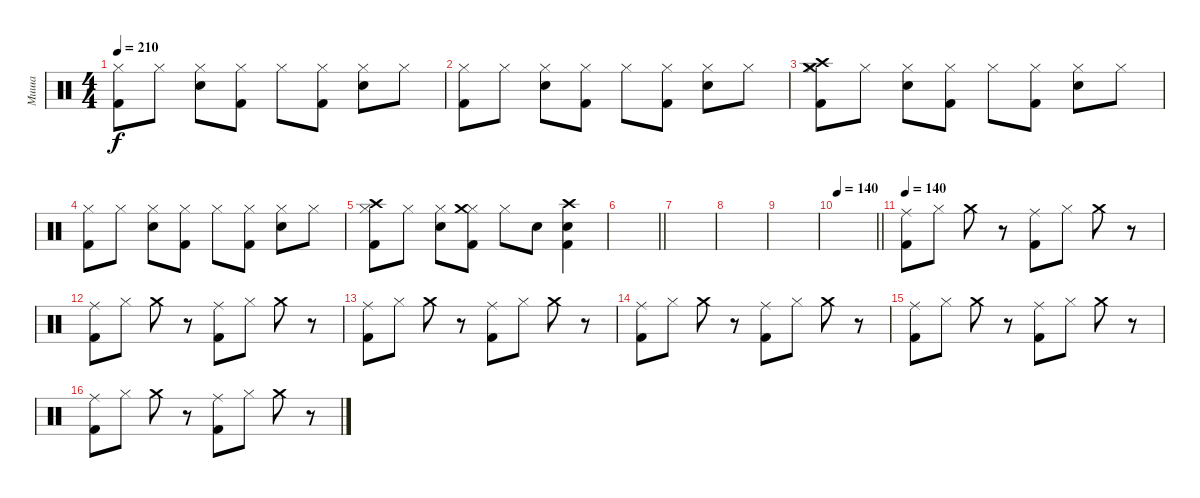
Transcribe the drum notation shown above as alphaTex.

\track ("Миша" "Миша") {instrument percussion}
\staff {score}
\articulation defaults
\ts (4 4)
\tempo 210
\clef neutral
\ks c
("Hi-Hat (closed)" "Kick (hit) 2").8{dy f} "Hi-Hat (closed)".8 ("Hi-Hat (closed)" "Snare (hit) 2").8 ("Hi-Hat (closed)" "Kick (hit) 2").8 "Hi-Hat (closed)".8 ("Hi-Hat (closed)" "Kick (hit) 2").8 ("Hi-Hat (closed)" "Snare (hit) 2").8 "Hi-Hat (closed)".8 |
("Hi-Hat (closed)" "Kick (hit) 2").8 "Hi-Hat (closed)".8 ("Hi-Hat (closed)" "Snare (hit) 2").8 ("Hi-Hat (closed)" "Kick (hit) 2").8 "Hi-Hat (closed)".8 ("Hi-Hat (closed)" "Kick (hit) 2").8 ("Hi-Hat (closed)" "Snare (hit) 2").8 "Hi-Hat (closed)".8 |
("Hi-Hat (closed)" "Kick (hit) 2" "Crash medium (hit)" "Crash high (hit)").8 "Hi-Hat (closed)".8 ("Hi-Hat (closed)" "Snare (hit) 2").8 ("Hi-Hat (closed)" "Kick (hit) 2").8 "Hi-Hat (closed)".8 ("Hi-Hat (closed)" "Kick (hit) 2").8 ("Hi-Hat (closed)" "Snare (hit) 2").8 "Hi-Hat (closed)".8 |
("Hi-Hat (closed)" "Kick (hit) 2").8 "Hi-Hat (closed)".8 ("Hi-Hat (closed)" "Snare (hit) 2").8 ("Hi-Hat (closed)" "Kick (hit) 2").8 "Hi-Hat (closed)".8 ("Hi-Hat (closed)" "Kick (hit) 2").8 ("Hi-Hat (closed)" "Snare (hit) 2").8 "Hi-Hat (closed)".8 |
("Hi-Hat (closed)" "Kick (hit) 2" "Crash high (hit)").8 "Hi-Hat (closed)".8 ("Hi-Hat (closed)" "Snare (hit) 2").8 ("Hi-Hat (closed)" "Kick (hit) 2" "Crash medium (hit)").8 "Hi-Hat (closed)".8 "Snare (hit) 2".8 ("Kick (hit) 2" "Snare (hit) 2" "Crash high (hit)").4 |
\barLineRight lightlight
|
|
|
|
\tempo 140
\barLineRight lightlight
|
\tempo 140
("Kick (hit) 2" "Ride (middle)").8 "Hi-Hat (closed)".8 "Crash medium (hit)".8 r.8 ("Kick (hit) 2" "Ride (middle)").8 "Hi-Hat (closed)".8 "Crash medium (hit)".8 r.8 |
("Kick (hit) 2" "Ride (middle)").8 "Hi-Hat (closed)".8 "Crash medium (hit)".8 r.8 ("Kick (hit) 2" "Ride (middle)").8 "Hi-Hat (closed)".8 "Crash medium (hit)".8 r.8 |
("Kick (hit) 2" "Ride (middle)").8 "Hi-Hat (closed)".8 "Crash medium (hit)".8 r.8 ("Kick (hit) 2" "Ride (middle)").8 "Hi-Hat (closed)".8 "Crash medium (hit)".8 r.8 |
("Kick (hit) 2" "Ride (middle)").8 "Hi-Hat (closed)".8 "Crash medium (hit)".8 r.8 ("Kick (hit) 2" "Ride (middle)").8 "Hi-Hat (closed)".8 "Crash medium (hit)".8 r.8 |
("Kick (hit) 2" "Ride (middle)").8 "Hi-Hat (closed)".8 "Crash medium (hit)".8 r.8 ("Kick (hit) 2" "Ride (middle)").8 "Hi-Hat (closed)".8 "Crash medium (hit)".8 r.8 |
("Kick (hit) 2" "Ride (middle)").8 "Hi-Hat (closed)".8 "Crash medium (hit)".8 r.8 ("Kick (hit) 2" "Ride (middle)").8 "Hi-Hat (closed)".8 "Crash medium (hit)".8 r.8
